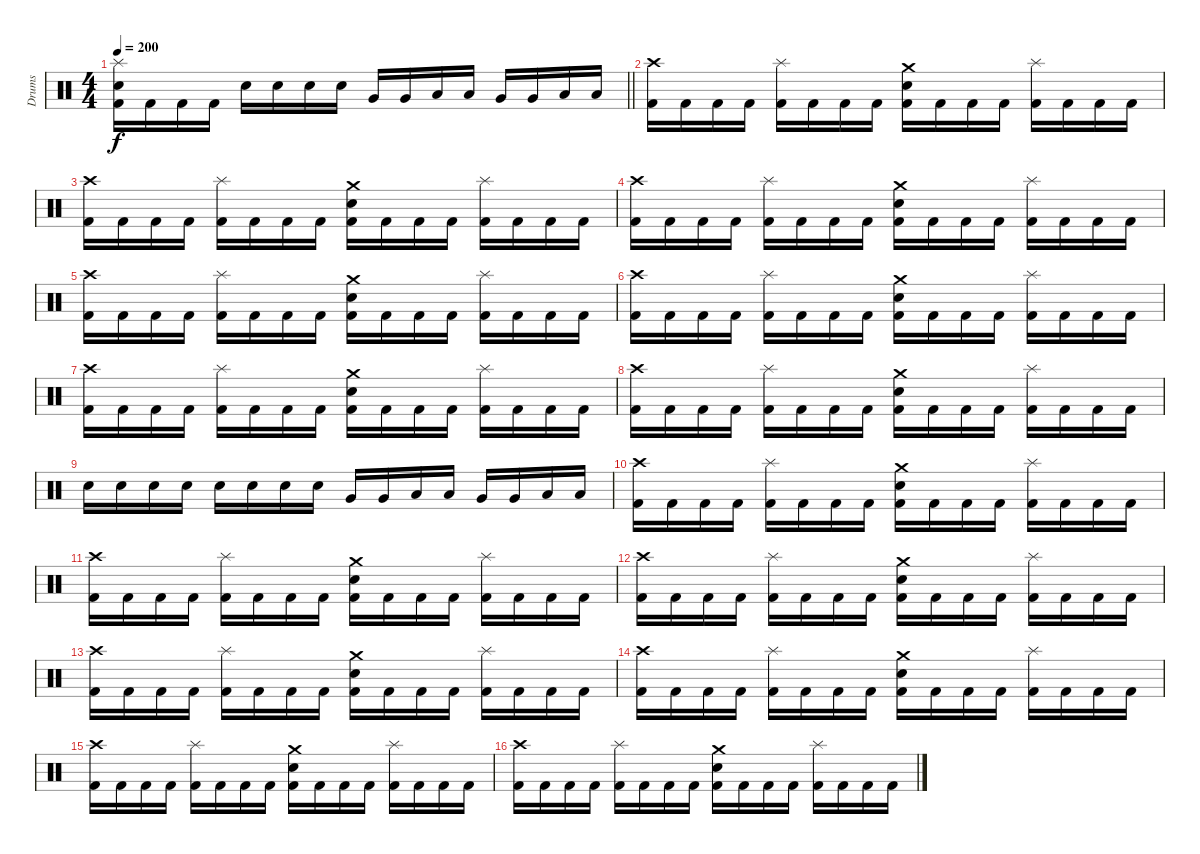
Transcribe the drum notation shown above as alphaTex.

\track ("Drums" "Drums") {instrument percussion}
\staff {score}
\articulation defaults
\ts (4 4)
\tempo 200
\clef neutral
\barLineRight lightlight
\ks c
("Splash (hit)" "Electric Snare (hit)" "Kick (hit) 2").16{dy f} "Kick (hit) 2".16 "Kick (hit) 2".16 "Kick (hit) 2".16 "Electric Snare (hit)".16 "Electric Snare (hit)".16 "Electric Snare (hit)".16 "Electric Snare (hit)".16 "Very Low Tom (hit)".16 "Very Low Tom (hit)".16 "Low Tom (hit)".16 "Low Tom (hit)".16 "Very Low Tom (hit)".16 "Very Low Tom (hit)".16 "Low Floor Tom (hit)".16 "Low Floor Tom (hit)".16 |
("Crash high (hit)" "Kick (hit) 2").16 "Kick (hit) 2".16 "Kick (hit) 2".16 "Kick (hit) 2".16 ("Splash (hit)" "Kick (hit) 2").16 "Kick (hit) 2".16 "Kick (hit) 2".16 "Kick (hit) 2".16 ("Crash medium (hit)" "Electric Snare (hit)" "Kick (hit) 2").16 "Kick (hit) 2".16 "Kick (hit) 2".16 "Kick (hit) 2".16 ("Splash (hit)" "Kick (hit) 2").16 "Kick (hit) 2".16 "Kick (hit) 2".16 "Kick (hit) 2".16 |
("Crash high (hit)" "Kick (hit) 2").16 "Kick (hit) 2".16 "Kick (hit) 2".16 "Kick (hit) 2".16 ("Splash (hit)" "Kick (hit) 2").16 "Kick (hit) 2".16 "Kick (hit) 2".16 "Kick (hit) 2".16 ("Crash medium (hit)" "Electric Snare (hit)" "Kick (hit) 2").16 "Kick (hit) 2".16 "Kick (hit) 2".16 "Kick (hit) 2".16 ("Splash (hit)" "Kick (hit) 2").16 "Kick (hit) 2".16 "Kick (hit) 2".16 "Kick (hit) 2".16 |
("Crash high (hit)" "Kick (hit) 2").16 "Kick (hit) 2".16 "Kick (hit) 2".16 "Kick (hit) 2".16 ("Splash (hit)" "Kick (hit) 2").16 "Kick (hit) 2".16 "Kick (hit) 2".16 "Kick (hit) 2".16 ("Crash medium (hit)" "Electric Snare (hit)" "Kick (hit) 2").16 "Kick (hit) 2".16 "Kick (hit) 2".16 "Kick (hit) 2".16 ("Splash (hit)" "Kick (hit) 2").16 "Kick (hit) 2".16 "Kick (hit) 2".16 "Kick (hit) 2".16 |
("Crash high (hit)" "Kick (hit) 2").16 "Kick (hit) 2".16 "Kick (hit) 2".16 "Kick (hit) 2".16 ("Splash (hit)" "Kick (hit) 2").16 "Kick (hit) 2".16 "Kick (hit) 2".16 "Kick (hit) 2".16 ("Crash medium (hit)" "Electric Snare (hit)" "Kick (hit) 2").16 "Kick (hit) 2".16 "Kick (hit) 2".16 "Kick (hit) 2".16 ("Splash (hit)" "Kick (hit) 2").16 "Kick (hit) 2".16 "Kick (hit) 2".16 "Kick (hit) 2".16 |
("Crash high (hit)" "Kick (hit) 2").16 "Kick (hit) 2".16 "Kick (hit) 2".16 "Kick (hit) 2".16 ("Splash (hit)" "Kick (hit) 2").16 "Kick (hit) 2".16 "Kick (hit) 2".16 "Kick (hit) 2".16 ("Crash medium (hit)" "Electric Snare (hit)" "Kick (hit) 2").16 "Kick (hit) 2".16 "Kick (hit) 2".16 "Kick (hit) 2".16 ("Splash (hit)" "Kick (hit) 2").16 "Kick (hit) 2".16 "Kick (hit) 2".16 "Kick (hit) 2".16 |
("Crash high (hit)" "Kick (hit) 2").16 "Kick (hit) 2".16 "Kick (hit) 2".16 "Kick (hit) 2".16 ("Splash (hit)" "Kick (hit) 2").16 "Kick (hit) 2".16 "Kick (hit) 2".16 "Kick (hit) 2".16 ("Crash medium (hit)" "Electric Snare (hit)" "Kick (hit) 2").16 "Kick (hit) 2".16 "Kick (hit) 2".16 "Kick (hit) 2".16 ("Splash (hit)" "Kick (hit) 2").16 "Kick (hit) 2".16 "Kick (hit) 2".16 "Kick (hit) 2".16 |
("Crash high (hit)" "Kick (hit) 2").16 "Kick (hit) 2".16 "Kick (hit) 2".16 "Kick (hit) 2".16 ("Splash (hit)" "Kick (hit) 2").16 "Kick (hit) 2".16 "Kick (hit) 2".16 "Kick (hit) 2".16 ("Crash medium (hit)" "Electric Snare (hit)" "Kick (hit) 2").16 "Kick (hit) 2".16 "Kick (hit) 2".16 "Kick (hit) 2".16 ("Splash (hit)" "Kick (hit) 2").16 "Kick (hit) 2".16 "Kick (hit) 2".16 "Kick (hit) 2".16 |
"Electric Snare (hit)".16 "Electric Snare (hit)".16 "Electric Snare (hit)".16 "Electric Snare (hit)".16 "Electric Snare (hit)".16 "Electric Snare (hit)".16 "Electric Snare (hit)".16 "Electric Snare (hit)".16 "Very Low Tom (hit)".16 "Very Low Tom (hit)".16 "Low Tom (hit)".16 "Low Tom (hit)".16 "Very Low Tom (hit)".16 "Very Low Tom (hit)".16 "Low Floor Tom (hit)".16 "Low Floor Tom (hit)".16 |
("Crash high (hit)" "Kick (hit) 2").16 "Kick (hit) 2".16 "Kick (hit) 2".16 "Kick (hit) 2".16 ("Splash (hit)" "Kick (hit) 2").16 "Kick (hit) 2".16 "Kick (hit) 2".16 "Kick (hit) 2".16 ("Crash medium (hit)" "Electric Snare (hit)" "Kick (hit) 2").16 "Kick (hit) 2".16 "Kick (hit) 2".16 "Kick (hit) 2".16 ("Splash (hit)" "Kick (hit) 2").16 "Kick (hit) 2".16 "Kick (hit) 2".16 "Kick (hit) 2".16 |
("Crash high (hit)" "Kick (hit) 2").16 "Kick (hit) 2".16 "Kick (hit) 2".16 "Kick (hit) 2".16 ("Splash (hit)" "Kick (hit) 2").16 "Kick (hit) 2".16 "Kick (hit) 2".16 "Kick (hit) 2".16 ("Crash medium (hit)" "Electric Snare (hit)" "Kick (hit) 2").16 "Kick (hit) 2".16 "Kick (hit) 2".16 "Kick (hit) 2".16 ("Splash (hit)" "Kick (hit) 2").16 "Kick (hit) 2".16 "Kick (hit) 2".16 "Kick (hit) 2".16 |
("Crash high (hit)" "Kick (hit) 2").16 "Kick (hit) 2".16 "Kick (hit) 2".16 "Kick (hit) 2".16 ("Splash (hit)" "Kick (hit) 2").16 "Kick (hit) 2".16 "Kick (hit) 2".16 "Kick (hit) 2".16 ("Crash medium (hit)" "Electric Snare (hit)" "Kick (hit) 2").16 "Kick (hit) 2".16 "Kick (hit) 2".16 "Kick (hit) 2".16 ("Splash (hit)" "Kick (hit) 2").16 "Kick (hit) 2".16 "Kick (hit) 2".16 "Kick (hit) 2".16 |
("Crash high (hit)" "Kick (hit) 2").16 "Kick (hit) 2".16 "Kick (hit) 2".16 "Kick (hit) 2".16 ("Splash (hit)" "Kick (hit) 2").16 "Kick (hit) 2".16 "Kick (hit) 2".16 "Kick (hit) 2".16 ("Crash medium (hit)" "Electric Snare (hit)" "Kick (hit) 2").16 "Kick (hit) 2".16 "Kick (hit) 2".16 "Kick (hit) 2".16 ("Splash (hit)" "Kick (hit) 2").16 "Kick (hit) 2".16 "Kick (hit) 2".16 "Kick (hit) 2".16 |
("Crash high (hit)" "Kick (hit) 2").16 "Kick (hit) 2".16 "Kick (hit) 2".16 "Kick (hit) 2".16 ("Splash (hit)" "Kick (hit) 2").16 "Kick (hit) 2".16 "Kick (hit) 2".16 "Kick (hit) 2".16 ("Crash medium (hit)" "Electric Snare (hit)" "Kick (hit) 2").16 "Kick (hit) 2".16 "Kick (hit) 2".16 "Kick (hit) 2".16 ("Splash (hit)" "Kick (hit) 2").16 "Kick (hit) 2".16 "Kick (hit) 2".16 "Kick (hit) 2".16 |
("Crash high (hit)" "Kick (hit) 2").16 "Kick (hit) 2".16 "Kick (hit) 2".16 "Kick (hit) 2".16 ("Splash (hit)" "Kick (hit) 2").16 "Kick (hit) 2".16 "Kick (hit) 2".16 "Kick (hit) 2".16 ("Crash medium (hit)" "Electric Snare (hit)" "Kick (hit) 2").16 "Kick (hit) 2".16 "Kick (hit) 2".16 "Kick (hit) 2".16 ("Splash (hit)" "Kick (hit) 2").16 "Kick (hit) 2".16 "Kick (hit) 2".16 "Kick (hit) 2".16 |
("Crash high (hit)" "Kick (hit) 2").16 "Kick (hit) 2".16 "Kick (hit) 2".16 "Kick (hit) 2".16 ("Splash (hit)" "Kick (hit) 2").16 "Kick (hit) 2".16 "Kick (hit) 2".16 "Kick (hit) 2".16 ("Crash medium (hit)" "Electric Snare (hit)" "Kick (hit) 2").16 "Kick (hit) 2".16 "Kick (hit) 2".16 "Kick (hit) 2".16 ("Splash (hit)" "Kick (hit) 2").16 "Kick (hit) 2".16 "Kick (hit) 2".16 "Kick (hit) 2".16
